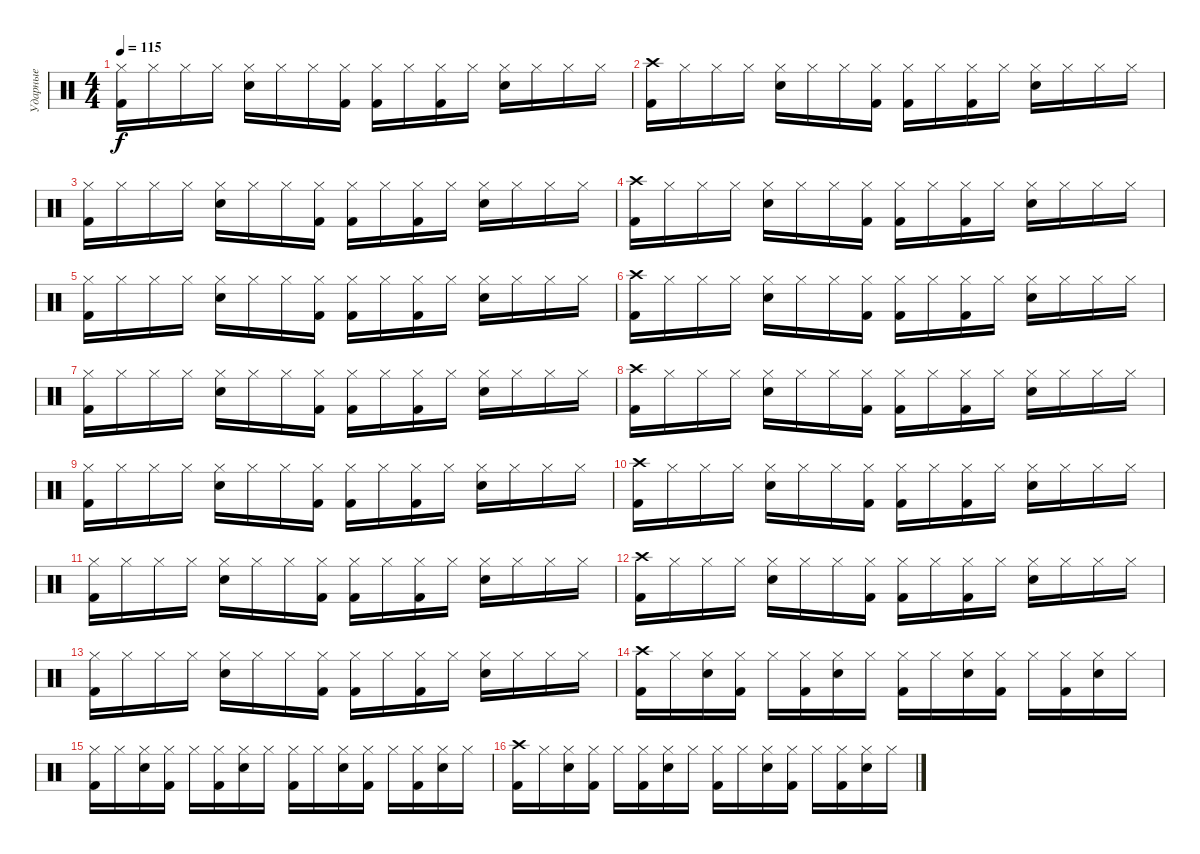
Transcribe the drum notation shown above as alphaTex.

\track ("Ударные" "Ударные") {instrument percussion}
\staff {score}
\articulation defaults
\ts (4 4)
\tempo 115
\clef neutral
\ks c
("Kick (hit) 2" "Hi-Hat (closed)").16{dy f} "Hi-Hat (closed)".16 "Hi-Hat (closed)".16 "Hi-Hat (closed)".16 ("Electric Snare (hit)" "Hi-Hat (closed)").16 "Hi-Hat (closed)".16 "Hi-Hat (closed)".16 ("Kick (hit) 2" "Hi-Hat (closed)").16 ("Kick (hit) 2" "Hi-Hat (closed)").16 "Hi-Hat (closed)".16 ("Kick (hit) 2" "Hi-Hat (closed)").16 "Hi-Hat (closed)".16 ("Electric Snare (hit)" "Hi-Hat (closed)").16 "Hi-Hat (closed)".16 "Hi-Hat (closed)".16 "Hi-Hat (closed)".16 |
("Kick (hit) 2" "Crash high (hit)").16 "Hi-Hat (closed)".16 "Hi-Hat (closed)".16 "Hi-Hat (closed)".16 ("Electric Snare (hit)" "Hi-Hat (closed)").16 "Hi-Hat (closed)".16 "Hi-Hat (closed)".16 ("Kick (hit) 2" "Hi-Hat (closed)").16 ("Kick (hit) 2" "Hi-Hat (closed)").16 "Hi-Hat (closed)".16 ("Kick (hit) 2" "Hi-Hat (closed)").16 "Hi-Hat (closed)".16 ("Electric Snare (hit)" "Hi-Hat (closed)").16 "Hi-Hat (closed)".16 "Hi-Hat (closed)".16 "Hi-Hat (closed)".16 |
("Kick (hit) 2" "Hi-Hat (closed)").16 "Hi-Hat (closed)".16 "Hi-Hat (closed)".16 "Hi-Hat (closed)".16 ("Electric Snare (hit)" "Hi-Hat (closed)").16 "Hi-Hat (closed)".16 "Hi-Hat (closed)".16 ("Kick (hit) 2" "Hi-Hat (closed)").16 ("Kick (hit) 2" "Hi-Hat (closed)").16 "Hi-Hat (closed)".16 ("Kick (hit) 2" "Hi-Hat (closed)").16 "Hi-Hat (closed)".16 ("Electric Snare (hit)" "Hi-Hat (closed)").16 "Hi-Hat (closed)".16 "Hi-Hat (closed)".16 "Hi-Hat (closed)".16 |
("Kick (hit) 2" "Crash high (hit)").16 "Hi-Hat (closed)".16 "Hi-Hat (closed)".16 "Hi-Hat (closed)".16 ("Electric Snare (hit)" "Hi-Hat (closed)").16 "Hi-Hat (closed)".16 "Hi-Hat (closed)".16 ("Kick (hit) 2" "Hi-Hat (closed)").16 ("Kick (hit) 2" "Hi-Hat (closed)").16 "Hi-Hat (closed)".16 ("Kick (hit) 2" "Hi-Hat (closed)").16 "Hi-Hat (closed)".16 ("Electric Snare (hit)" "Hi-Hat (closed)").16 "Hi-Hat (closed)".16 "Hi-Hat (closed)".16 "Hi-Hat (closed)".16 |
("Kick (hit) 2" "Hi-Hat (closed)").16 "Hi-Hat (closed)".16 "Hi-Hat (closed)".16 "Hi-Hat (closed)".16 ("Electric Snare (hit)" "Hi-Hat (closed)").16 "Hi-Hat (closed)".16 "Hi-Hat (closed)".16 ("Kick (hit) 2" "Hi-Hat (closed)").16 ("Kick (hit) 2" "Hi-Hat (closed)").16 "Hi-Hat (closed)".16 ("Kick (hit) 2" "Hi-Hat (closed)").16 "Hi-Hat (closed)".16 ("Electric Snare (hit)" "Hi-Hat (closed)").16 "Hi-Hat (closed)".16 "Hi-Hat (closed)".16 "Hi-Hat (closed)".16 |
("Kick (hit) 2" "Crash high (hit)").16 "Hi-Hat (closed)".16 "Hi-Hat (closed)".16 "Hi-Hat (closed)".16 ("Electric Snare (hit)" "Hi-Hat (closed)").16 "Hi-Hat (closed)".16 "Hi-Hat (closed)".16 ("Kick (hit) 2" "Hi-Hat (closed)").16 ("Kick (hit) 2" "Hi-Hat (closed)").16 "Hi-Hat (closed)".16 ("Kick (hit) 2" "Hi-Hat (closed)").16 "Hi-Hat (closed)".16 ("Electric Snare (hit)" "Hi-Hat (closed)").16 "Hi-Hat (closed)".16 "Hi-Hat (closed)".16 "Hi-Hat (closed)".16 |
("Kick (hit) 2" "Hi-Hat (closed)").16 "Hi-Hat (closed)".16 "Hi-Hat (closed)".16 "Hi-Hat (closed)".16 ("Electric Snare (hit)" "Hi-Hat (closed)").16 "Hi-Hat (closed)".16 "Hi-Hat (closed)".16 ("Kick (hit) 2" "Hi-Hat (closed)").16 ("Kick (hit) 2" "Hi-Hat (closed)").16 "Hi-Hat (closed)".16 ("Kick (hit) 2" "Hi-Hat (closed)").16 "Hi-Hat (closed)".16 ("Electric Snare (hit)" "Hi-Hat (closed)").16 "Hi-Hat (closed)".16 "Hi-Hat (closed)".16 "Hi-Hat (closed)".16 |
("Kick (hit) 2" "Crash high (hit)").16 "Hi-Hat (closed)".16 "Hi-Hat (closed)".16 "Hi-Hat (closed)".16 ("Electric Snare (hit)" "Hi-Hat (closed)").16 "Hi-Hat (closed)".16 "Hi-Hat (closed)".16 ("Kick (hit) 2" "Hi-Hat (closed)").16 ("Kick (hit) 2" "Hi-Hat (closed)").16 "Hi-Hat (closed)".16 ("Kick (hit) 2" "Hi-Hat (closed)").16 "Hi-Hat (closed)".16 ("Electric Snare (hit)" "Hi-Hat (closed)").16 "Hi-Hat (closed)".16 "Hi-Hat (closed)".16 "Hi-Hat (closed)".16 |
("Kick (hit) 2" "Hi-Hat (closed)").16 "Hi-Hat (closed)".16 "Hi-Hat (closed)".16 "Hi-Hat (closed)".16 ("Electric Snare (hit)" "Hi-Hat (closed)").16 "Hi-Hat (closed)".16 "Hi-Hat (closed)".16 ("Kick (hit) 2" "Hi-Hat (closed)").16 ("Kick (hit) 2" "Hi-Hat (closed)").16 "Hi-Hat (closed)".16 ("Kick (hit) 2" "Hi-Hat (closed)").16 "Hi-Hat (closed)".16 ("Electric Snare (hit)" "Hi-Hat (closed)").16 "Hi-Hat (closed)".16 "Hi-Hat (closed)".16 "Hi-Hat (closed)".16 |
("Kick (hit) 2" "Crash high (hit)").16 "Hi-Hat (closed)".16 "Hi-Hat (closed)".16 "Hi-Hat (closed)".16 ("Electric Snare (hit)" "Hi-Hat (closed)").16 "Hi-Hat (closed)".16 "Hi-Hat (closed)".16 ("Kick (hit) 2" "Hi-Hat (closed)").16 ("Kick (hit) 2" "Hi-Hat (closed)").16 "Hi-Hat (closed)".16 ("Kick (hit) 2" "Hi-Hat (closed)").16 "Hi-Hat (closed)".16 ("Electric Snare (hit)" "Hi-Hat (closed)").16 "Hi-Hat (closed)".16 "Hi-Hat (closed)".16 "Hi-Hat (closed)".16 |
("Kick (hit) 2" "Hi-Hat (closed)").16 "Hi-Hat (closed)".16 "Hi-Hat (closed)".16 "Hi-Hat (closed)".16 ("Electric Snare (hit)" "Hi-Hat (closed)").16 "Hi-Hat (closed)".16 "Hi-Hat (closed)".16 ("Kick (hit) 2" "Hi-Hat (closed)").16 ("Kick (hit) 2" "Hi-Hat (closed)").16 "Hi-Hat (closed)".16 ("Kick (hit) 2" "Hi-Hat (closed)").16 "Hi-Hat (closed)".16 ("Electric Snare (hit)" "Hi-Hat (closed)").16 "Hi-Hat (closed)".16 "Hi-Hat (closed)".16 "Hi-Hat (closed)".16 |
("Kick (hit) 2" "Crash high (hit)").16 "Hi-Hat (closed)".16 "Hi-Hat (closed)".16 "Hi-Hat (closed)".16 ("Electric Snare (hit)" "Hi-Hat (closed)").16 "Hi-Hat (closed)".16 "Hi-Hat (closed)".16 ("Kick (hit) 2" "Hi-Hat (closed)").16 ("Kick (hit) 2" "Hi-Hat (closed)").16 "Hi-Hat (closed)".16 ("Kick (hit) 2" "Hi-Hat (closed)").16 "Hi-Hat (closed)".16 ("Electric Snare (hit)" "Hi-Hat (closed)").16 "Hi-Hat (closed)".16 "Hi-Hat (closed)".16 "Hi-Hat (closed)".16 |
("Kick (hit) 2" "Hi-Hat (closed)").16 "Hi-Hat (closed)".16 "Hi-Hat (closed)".16 "Hi-Hat (closed)".16 ("Electric Snare (hit)" "Hi-Hat (closed)").16 "Hi-Hat (closed)".16 "Hi-Hat (closed)".16 ("Kick (hit) 2" "Hi-Hat (closed)").16 ("Kick (hit) 2" "Hi-Hat (closed)").16 "Hi-Hat (closed)".16 ("Kick (hit) 2" "Hi-Hat (closed)").16 "Hi-Hat (closed)".16 ("Electric Snare (hit)" "Hi-Hat (closed)").16 "Hi-Hat (closed)".16 "Hi-Hat (closed)".16 "Hi-Hat (closed)".16 |
("Kick (hit) 2" "Crash high (hit)").16 "Hi-Hat (closed)".16 ("Electric Snare (hit)" "Hi-Hat (closed)").16 ("Kick (hit) 2" "Hi-Hat (closed)").16 "Hi-Hat (closed)".16 ("Kick (hit) 2" "Hi-Hat (closed)").16 ("Electric Snare (hit)" "Hi-Hat (closed)").16 "Hi-Hat (closed)".16 ("Kick (hit) 2" "Hi-Hat (closed)").16 "Hi-Hat (closed)".16 ("Electric Snare (hit)" "Hi-Hat (closed)").16 ("Kick (hit) 2" "Hi-Hat (closed)").16 "Hi-Hat (closed)".16 ("Kick (hit) 2" "Hi-Hat (closed)").16 ("Electric Snare (hit)" "Hi-Hat (closed)").16 "Hi-Hat (closed)".16 |
("Kick (hit) 2" "Hi-Hat (closed)").16 "Hi-Hat (closed)".16 ("Electric Snare (hit)" "Hi-Hat (closed)").16 ("Kick (hit) 2" "Hi-Hat (closed)").16 "Hi-Hat (closed)".16 ("Kick (hit) 2" "Hi-Hat (closed)").16 ("Electric Snare (hit)" "Hi-Hat (closed)").16 "Hi-Hat (closed)".16 ("Kick (hit) 2" "Hi-Hat (closed)").16 "Hi-Hat (closed)".16 ("Electric Snare (hit)" "Hi-Hat (closed)").16 ("Kick (hit) 2" "Hi-Hat (closed)").16 "Hi-Hat (closed)".16 ("Kick (hit) 2" "Hi-Hat (closed)").16 ("Electric Snare (hit)" "Hi-Hat (closed)").16 "Hi-Hat (closed)".16 |
("Kick (hit) 2" "Crash high (hit)").16 "Hi-Hat (closed)".16 ("Electric Snare (hit)" "Hi-Hat (closed)").16 ("Kick (hit) 2" "Hi-Hat (closed)").16 "Hi-Hat (closed)".16 ("Kick (hit) 2" "Hi-Hat (closed)").16 ("Electric Snare (hit)" "Hi-Hat (closed)").16 "Hi-Hat (closed)".16 ("Kick (hit) 2" "Hi-Hat (closed)").16 "Hi-Hat (closed)".16 ("Electric Snare (hit)" "Hi-Hat (closed)").16 ("Kick (hit) 2" "Hi-Hat (closed)").16 "Hi-Hat (closed)".16 ("Kick (hit) 2" "Hi-Hat (closed)").16 ("Electric Snare (hit)" "Hi-Hat (closed)").16 "Hi-Hat (closed)".16
